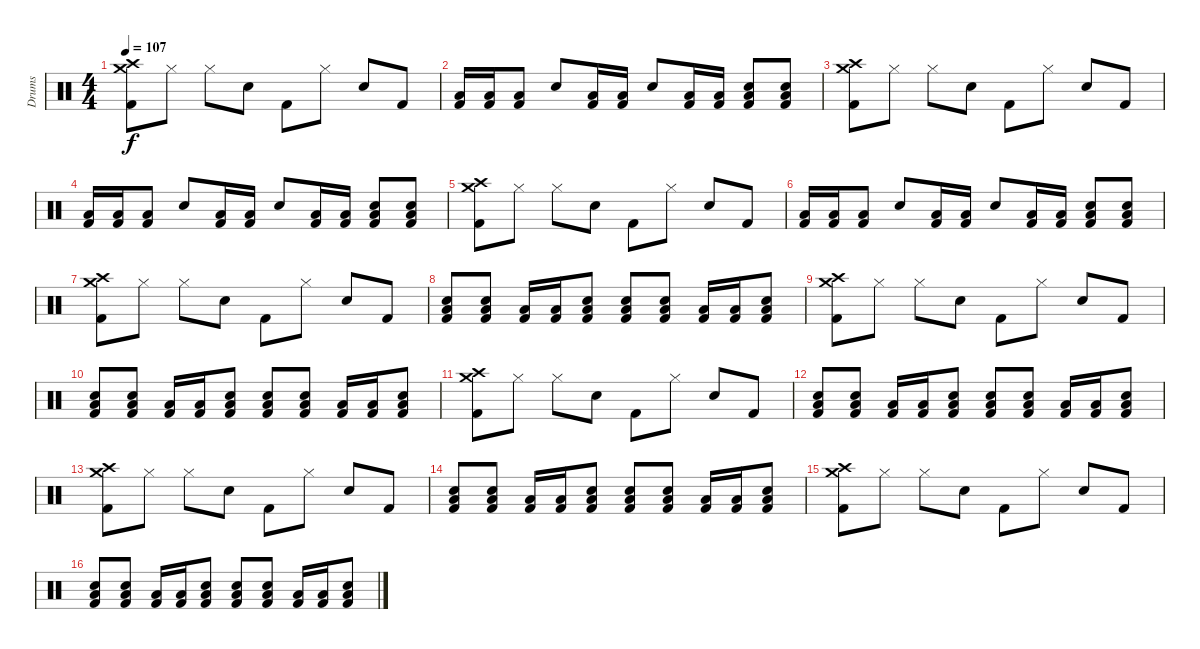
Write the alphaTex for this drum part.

\track ("Drums" "Drums") {instrument percussion}
\staff {score}
\articulation defaults
\ts (4 4)
\tempo 107
\clef neutral
\ks c
("Crash medium (hit)" "Crash high (hit)" "Kick (hit) 2").8{dy f} "Hi-Hat (closed)".8 "Hi-Hat (closed)".8 "Snare (hit) 2".8 "Kick (hit) 2".8 "Hi-Hat (closed)".8 "Snare (hit) 2".8 "Kick (hit) 2".8 |
("Low Tom (hit)" "Kick (hit) 2").16 ("Low Tom (hit)" "Kick (hit) 2").16 ("Low Tom (hit)" "Kick (hit) 2").8 "Snare (hit) 2".8 ("Low Tom (hit)" "Kick (hit) 2").16 ("Low Tom (hit)" "Kick (hit) 2").16 "Snare (hit) 2".8 ("Low Tom (hit)" "Kick (hit) 2").16 ("Low Tom (hit)" "Kick (hit) 2").16 ("Low Tom (hit)" "Snare (hit) 2" "Kick (hit) 2").8 ("Low Tom (hit)" "Snare (hit) 2" "Kick (hit) 2").8 |
("Crash medium (hit)" "Crash high (hit)" "Kick (hit) 2").8 "Hi-Hat (closed)".8 "Hi-Hat (closed)".8 "Snare (hit) 2".8 "Kick (hit) 2".8 "Hi-Hat (closed)".8 "Snare (hit) 2".8 "Kick (hit) 2".8 |
("Low Tom (hit)" "Kick (hit) 2").16 ("Low Tom (hit)" "Kick (hit) 2").16 ("Low Tom (hit)" "Kick (hit) 2").8 "Snare (hit) 2".8 ("Low Tom (hit)" "Kick (hit) 2").16 ("Low Tom (hit)" "Kick (hit) 2").16 "Snare (hit) 2".8 ("Low Tom (hit)" "Kick (hit) 2").16 ("Low Tom (hit)" "Kick (hit) 2").16 ("Low Tom (hit)" "Snare (hit) 2" "Kick (hit) 2").8 ("Low Tom (hit)" "Snare (hit) 2" "Kick (hit) 2").8 |
("Crash medium (hit)" "Crash high (hit)" "Kick (hit) 2").8 "Hi-Hat (closed)".8 "Hi-Hat (closed)".8 "Snare (hit) 2".8 "Kick (hit) 2".8 "Hi-Hat (closed)".8 "Snare (hit) 2".8 "Kick (hit) 2".8 |
("Low Tom (hit)" "Kick (hit) 2").16 ("Low Tom (hit)" "Kick (hit) 2").16 ("Low Tom (hit)" "Kick (hit) 2").8 "Snare (hit) 2".8 ("Low Tom (hit)" "Kick (hit) 2").16 ("Low Tom (hit)" "Kick (hit) 2").16 "Snare (hit) 2".8 ("Low Tom (hit)" "Kick (hit) 2").16 ("Low Tom (hit)" "Kick (hit) 2").16 ("Low Tom (hit)" "Snare (hit) 2" "Kick (hit) 2").8 ("Low Tom (hit)" "Snare (hit) 2" "Kick (hit) 2").8 |
("Crash medium (hit)" "Crash high (hit)" "Kick (hit) 2").8 "Hi-Hat (closed)".8 "Hi-Hat (closed)".8 "Snare (hit) 2".8 "Kick (hit) 2".8 "Hi-Hat (closed)".8 "Snare (hit) 2".8 "Kick (hit) 2".8 |
("Low Tom (hit)" "Snare (hit) 2" "Kick (hit) 2").8 ("Low Tom (hit)" "Snare (hit) 2" "Kick (hit) 2").8 ("Low Tom (hit)" "Kick (hit) 2").16 ("Low Tom (hit)" "Kick (hit) 2").16 ("Low Tom (hit)" "Snare (hit) 2" "Kick (hit) 2").8 ("Low Tom (hit)" "Snare (hit) 2" "Kick (hit) 2").8 ("Low Tom (hit)" "Snare (hit) 2" "Kick (hit) 2").8 ("Low Tom (hit)" "Kick (hit) 2").16 ("Low Tom (hit)" "Kick (hit) 2").16 ("Low Tom (hit)" "Snare (hit) 2" "Kick (hit) 2").8 |
("Crash medium (hit)" "Crash high (hit)" "Kick (hit) 2").8 "Hi-Hat (closed)".8 "Hi-Hat (closed)".8 "Snare (hit) 2".8 "Kick (hit) 2".8 "Hi-Hat (closed)".8 "Snare (hit) 2".8 "Kick (hit) 2".8 |
("Low Tom (hit)" "Snare (hit) 2" "Kick (hit) 2").8 ("Low Tom (hit)" "Snare (hit) 2" "Kick (hit) 2").8 ("Low Tom (hit)" "Kick (hit) 2").16 ("Low Tom (hit)" "Kick (hit) 2").16 ("Low Tom (hit)" "Snare (hit) 2" "Kick (hit) 2").8 ("Low Tom (hit)" "Snare (hit) 2" "Kick (hit) 2").8 ("Low Tom (hit)" "Snare (hit) 2" "Kick (hit) 2").8 ("Low Tom (hit)" "Kick (hit) 2").16 ("Low Tom (hit)" "Kick (hit) 2").16 ("Low Tom (hit)" "Snare (hit) 2" "Kick (hit) 2").8 |
("Crash medium (hit)" "Crash high (hit)" "Kick (hit) 2").8 "Hi-Hat (closed)".8 "Hi-Hat (closed)".8 "Snare (hit) 2".8 "Kick (hit) 2".8 "Hi-Hat (closed)".8 "Snare (hit) 2".8 "Kick (hit) 2".8 |
("Low Tom (hit)" "Snare (hit) 2" "Kick (hit) 2").8 ("Low Tom (hit)" "Snare (hit) 2" "Kick (hit) 2").8 ("Low Tom (hit)" "Kick (hit) 2").16 ("Low Tom (hit)" "Kick (hit) 2").16 ("Low Tom (hit)" "Snare (hit) 2" "Kick (hit) 2").8 ("Low Tom (hit)" "Snare (hit) 2" "Kick (hit) 2").8 ("Low Tom (hit)" "Snare (hit) 2" "Kick (hit) 2").8 ("Low Tom (hit)" "Kick (hit) 2").16 ("Low Tom (hit)" "Kick (hit) 2").16 ("Low Tom (hit)" "Snare (hit) 2" "Kick (hit) 2").8 |
("Crash medium (hit)" "Crash high (hit)" "Kick (hit) 2").8 "Hi-Hat (closed)".8 "Hi-Hat (closed)".8 "Snare (hit) 2".8 "Kick (hit) 2".8 "Hi-Hat (closed)".8 "Snare (hit) 2".8 "Kick (hit) 2".8 |
("Low Tom (hit)" "Snare (hit) 2" "Kick (hit) 2").8 ("Low Tom (hit)" "Snare (hit) 2" "Kick (hit) 2").8 ("Low Tom (hit)" "Kick (hit) 2").16 ("Low Tom (hit)" "Kick (hit) 2").16 ("Low Tom (hit)" "Snare (hit) 2" "Kick (hit) 2").8 ("Low Tom (hit)" "Snare (hit) 2" "Kick (hit) 2").8 ("Low Tom (hit)" "Snare (hit) 2" "Kick (hit) 2").8 ("Low Tom (hit)" "Kick (hit) 2").16 ("Low Tom (hit)" "Kick (hit) 2").16 ("Low Tom (hit)" "Snare (hit) 2" "Kick (hit) 2").8 |
("Crash medium (hit)" "Crash high (hit)" "Kick (hit) 2").8 "Hi-Hat (closed)".8 "Hi-Hat (closed)".8 "Snare (hit) 2".8 "Kick (hit) 2".8 "Hi-Hat (closed)".8 "Snare (hit) 2".8 "Kick (hit) 2".8 |
("Low Tom (hit)" "Snare (hit) 2" "Kick (hit) 2").8 ("Low Tom (hit)" "Snare (hit) 2" "Kick (hit) 2").8 ("Low Tom (hit)" "Kick (hit) 2").16 ("Low Tom (hit)" "Kick (hit) 2").16 ("Low Tom (hit)" "Snare (hit) 2" "Kick (hit) 2").8 ("Low Tom (hit)" "Snare (hit) 2" "Kick (hit) 2").8 ("Low Tom (hit)" "Snare (hit) 2" "Kick (hit) 2").8 ("Low Tom (hit)" "Kick (hit) 2").16 ("Low Tom (hit)" "Kick (hit) 2").16 ("Low Tom (hit)" "Snare (hit) 2" "Kick (hit) 2").8
